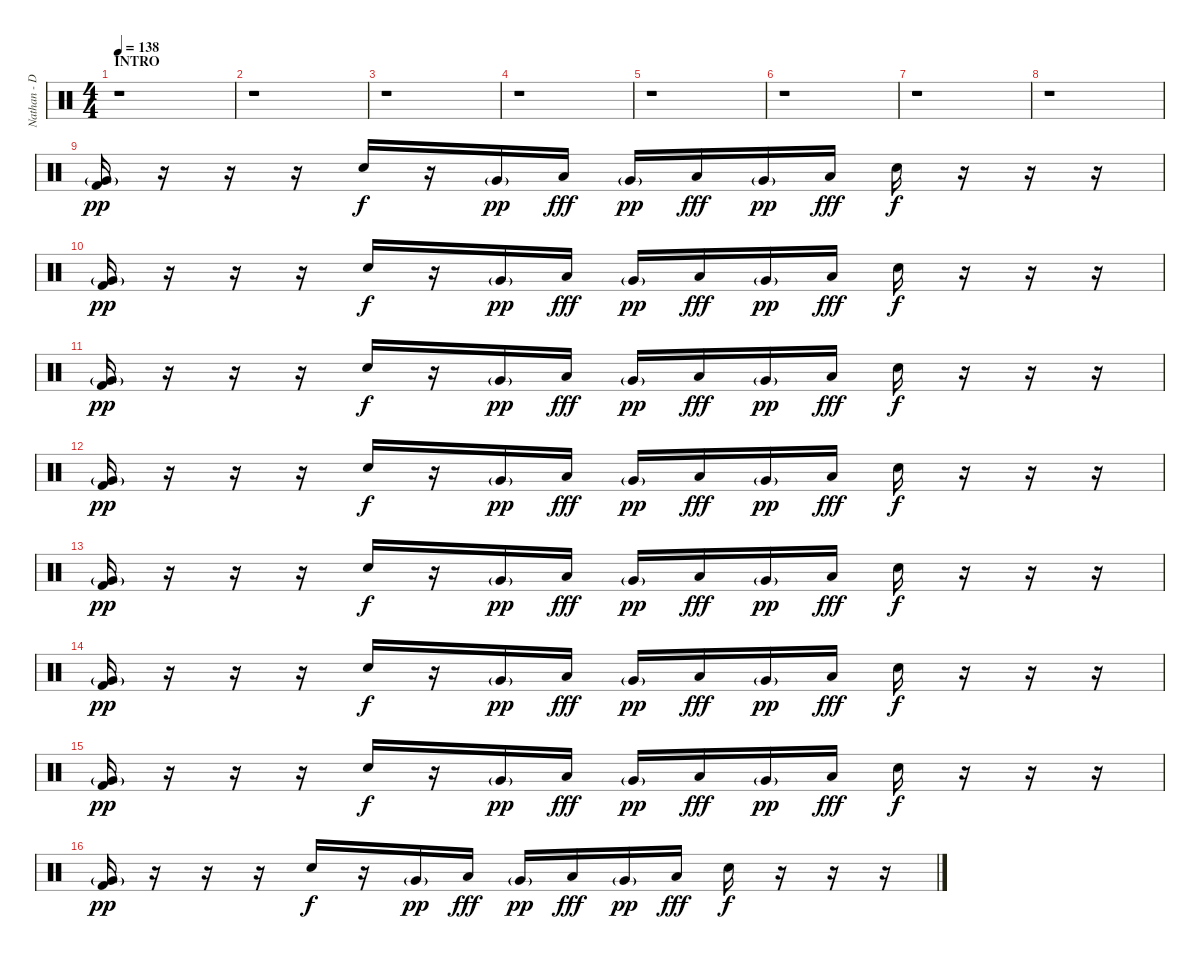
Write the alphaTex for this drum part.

\track ("Nathan - Drums" "Nathan - D") {instrument percussion}
\staff {score}
\articulation defaults
\ts (4 4)
\section ("" "INTRO")
\tempo 138
\clef neutral
\ks c
r.1{dy pp} |
r.1 |
r.1 |
r.1 |
r.1 |
r.1 |
r.1 |
r.1 |
("Very Low Tom (hit)"{g} "Kick (hit) 2").16 r.16 r.16 r.16 "Snare (hit) 2".16{dy f} r.16 "Very Low Tom (hit)"{g}.16{dy pp} "Low Tom (hit)".16{dy fff} "Very Low Tom (hit)"{g}.16{dy pp} "Low Tom (hit)".16{dy fff} "Very Low Tom (hit)"{g}.16{dy pp} "Low Tom (hit)".16{dy fff} "Snare (hit) 2".16{dy f} r.16 r.16 r.16 |
("Very Low Tom (hit)"{g} "Kick (hit) 2").16{dy pp} r.16 r.16 r.16 "Snare (hit) 2".16{dy f} r.16 "Very Low Tom (hit)"{g}.16{dy pp} "Low Tom (hit)".16{dy fff} "Very Low Tom (hit)"{g}.16{dy pp} "Low Tom (hit)".16{dy fff} "Very Low Tom (hit)"{g}.16{dy pp} "Low Tom (hit)".16{dy fff} "Snare (hit) 2".16{dy f} r.16 r.16 r.16 |
("Very Low Tom (hit)"{g} "Kick (hit) 2").16{dy pp} r.16 r.16 r.16 "Snare (hit) 2".16{dy f} r.16 "Very Low Tom (hit)"{g}.16{dy pp} "Low Tom (hit)".16{dy fff} "Very Low Tom (hit)"{g}.16{dy pp} "Low Tom (hit)".16{dy fff} "Very Low Tom (hit)"{g}.16{dy pp} "Low Tom (hit)".16{dy fff} "Snare (hit) 2".16{dy f} r.16 r.16 r.16 |
("Very Low Tom (hit)"{g} "Kick (hit) 2").16{dy pp} r.16 r.16 r.16 "Snare (hit) 2".16{dy f} r.16 "Very Low Tom (hit)"{g}.16{dy pp} "Low Tom (hit)".16{dy fff} "Very Low Tom (hit)"{g}.16{dy pp} "Low Tom (hit)".16{dy fff} "Very Low Tom (hit)"{g}.16{dy pp} "Low Tom (hit)".16{dy fff} "Snare (hit) 2".16{dy f} r.16 r.16 r.16 |
("Very Low Tom (hit)"{g} "Kick (hit) 2").16{dy pp} r.16 r.16 r.16 "Snare (hit) 2".16{dy f} r.16 "Very Low Tom (hit)"{g}.16{dy pp} "Low Tom (hit)".16{dy fff} "Very Low Tom (hit)"{g}.16{dy pp} "Low Tom (hit)".16{dy fff} "Very Low Tom (hit)"{g}.16{dy pp} "Low Tom (hit)".16{dy fff} "Snare (hit) 2".16{dy f} r.16 r.16 r.16 |
("Very Low Tom (hit)"{g} "Kick (hit) 2").16{dy pp} r.16 r.16 r.16 "Snare (hit) 2".16{dy f} r.16 "Very Low Tom (hit)"{g}.16{dy pp} "Low Tom (hit)".16{dy fff} "Very Low Tom (hit)"{g}.16{dy pp} "Low Tom (hit)".16{dy fff} "Very Low Tom (hit)"{g}.16{dy pp} "Low Tom (hit)".16{dy fff} "Snare (hit) 2".16{dy f} r.16 r.16 r.16 |
("Very Low Tom (hit)"{g} "Kick (hit) 2").16{dy pp} r.16 r.16 r.16 "Snare (hit) 2".16{dy f} r.16 "Very Low Tom (hit)"{g}.16{dy pp} "Low Tom (hit)".16{dy fff} "Very Low Tom (hit)"{g}.16{dy pp} "Low Tom (hit)".16{dy fff} "Very Low Tom (hit)"{g}.16{dy pp} "Low Tom (hit)".16{dy fff} "Snare (hit) 2".16{dy f} r.16 r.16 r.16 |
("Very Low Tom (hit)"{g} "Kick (hit) 2").16{dy pp} r.16 r.16 r.16 "Snare (hit) 2".16{dy f} r.16 "Very Low Tom (hit)"{g}.16{dy pp} "Low Tom (hit)".16{dy fff} "Very Low Tom (hit)"{g}.16{dy pp} "Low Tom (hit)".16{dy fff} "Very Low Tom (hit)"{g}.16{dy pp} "Low Tom (hit)".16{dy fff} "Snare (hit) 2".16{dy f} r.16 r.16 r.16
